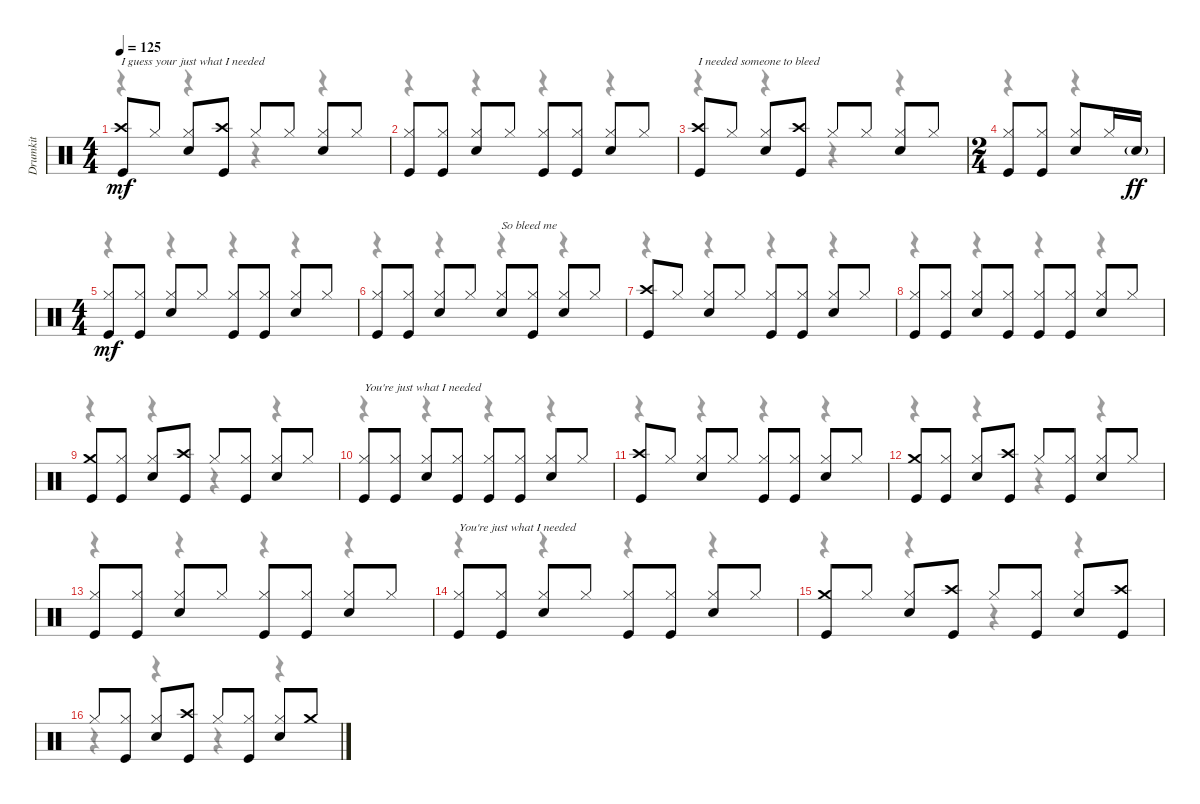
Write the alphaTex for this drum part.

\track ("Drumkit" "Drumkit") {instrument percussion}
\staff {score}
\articulation defaults
\voice
\ts (4 4)
\tempo 125
\clef neutral
\ks c
("Kick (hit)" "Crash high (hit)").8{txt "I guess your just what I needed" dy mf} "Hi-Hat (closed)".8 ("Hi-Hat (closed)" "Snare (hit) 2").8 ("Crash high (hit)" "Kick (hit)").8 "Hi-Hat (closed)".8 "Hi-Hat (closed)".8 ("Hi-Hat (closed)" "Snare (hit) 2").8 "Hi-Hat (closed)".8 |
("Hi-Hat (closed)" "Kick (hit)").8 ("Hi-Hat (closed)" "Kick (hit)").8 ("Hi-Hat (closed)" "Snare (hit) 2").8 "Hi-Hat (closed)".8 ("Hi-Hat (closed)" "Kick (hit)").8 ("Hi-Hat (closed)" "Kick (hit)").8 ("Hi-Hat (closed)" "Snare (hit) 2").8 "Hi-Hat (closed)".8 |
("Kick (hit)" "Crash high (hit)").8{txt "I needed someone to bleed"} "Hi-Hat (closed)".8 ("Hi-Hat (closed)" "Snare (hit) 2").8 ("Crash high (hit)" "Kick (hit)").8 "Hi-Hat (closed)".8 "Hi-Hat (closed)".8 ("Hi-Hat (closed)" "Snare (hit) 2").8 "Hi-Hat (closed)".8 |
\ts (2 4)
("Hi-Hat (closed)" "Kick (hit)").8 ("Hi-Hat (closed)" "Kick (hit)").8 ("Hi-Hat (closed)" "Snare (hit) 2").8 "Hi-Hat (closed)".16 "Snare (hit) 2"{g}.16{dy ff} |
\ts (4 4)
("Hi-Hat (closed)" "Kick (hit)").8{dy mf} ("Hi-Hat (closed)" "Kick (hit)").8 ("Hi-Hat (closed)" "Snare (hit) 2").8 "Hi-Hat (closed)".8 ("Hi-Hat (closed)" "Kick (hit)").8 ("Hi-Hat (closed)" "Kick (hit)").8 ("Hi-Hat (closed)" "Snare (hit) 2").8 "Hi-Hat (closed)".8 |
("Hi-Hat (closed)" "Kick (hit)").8 ("Hi-Hat (closed)" "Kick (hit)").8 ("Hi-Hat (closed)" "Snare (hit) 2").8 "Hi-Hat (closed)".8 ("Snare (hit) 2" "Hi-Hat (closed)").8{txt "So bleed me"} ("Kick (hit)" "Hi-Hat (closed)").8 ("Snare (hit) 2" "Hi-Hat (closed)").8 "Hi-Hat (closed)".8 |
("Kick (hit)" "Crash high (hit)").8 "Hi-Hat (closed)".8 ("Hi-Hat (closed)" "Snare (hit) 2").8 "Hi-Hat (closed)".8 ("Hi-Hat (closed)" "Kick (hit)").8 ("Hi-Hat (closed)" "Kick (hit)").8 ("Hi-Hat (closed)" "Snare (hit) 2").8 "Hi-Hat (closed)".8 |
("Hi-Hat (closed)" "Kick (hit)").8 ("Hi-Hat (closed)" "Kick (hit)").8 ("Hi-Hat (closed)" "Snare (hit) 2").8 ("Hi-Hat (closed)" "Kick (hit)").8 ("Hi-Hat (closed)" "Kick (hit)").8 ("Hi-Hat (closed)" "Kick (hit)").8 ("Hi-Hat (closed)" "Snare (hit) 2").8 "Hi-Hat (closed)".8 |
("Kick (hit)" "Crash medium (hit)").8 ("Hi-Hat (closed)" "Kick (hit)").8 ("Hi-Hat (closed)" "Snare (hit) 2").8 ("Kick (hit)" "Crash high (hit)").8 "Hi-Hat (closed)".8 ("Hi-Hat (closed)" "Kick (hit)").8 ("Hi-Hat (closed)" "Snare (hit) 2").8 "Hi-Hat (closed)".8 |
("Hi-Hat (closed)" "Kick (hit)").8{txt "You're just what I needed"} ("Hi-Hat (closed)" "Kick (hit)").8 ("Hi-Hat (closed)" "Snare (hit) 2").8 ("Hi-Hat (closed)" "Kick (hit)").8 ("Hi-Hat (closed)" "Kick (hit)").8 ("Hi-Hat (closed)" "Kick (hit)").8 ("Hi-Hat (closed)" "Snare (hit) 2").8 "Hi-Hat (closed)".8 |
("Kick (hit)" "Crash high (hit)").8 "Hi-Hat (closed)".8 ("Hi-Hat (closed)" "Snare (hit) 2").8 "Hi-Hat (closed)".8 ("Hi-Hat (closed)" "Kick (hit)").8 ("Hi-Hat (closed)" "Kick (hit)").8 ("Hi-Hat (closed)" "Snare (hit) 2").8 "Hi-Hat (closed)".8 |
("Kick (hit)" "Crash medium (hit)").8 ("Hi-Hat (closed)" "Kick (hit)").8 ("Hi-Hat (closed)" "Snare (hit) 2").8 ("Kick (hit)" "Crash high (hit)").8 "Hi-Hat (closed)".8 ("Hi-Hat (closed)" "Kick (hit)").8 ("Hi-Hat (closed)" "Snare (hit) 2").8 "Hi-Hat (closed)".8 |
("Hi-Hat (closed)" "Kick (hit)").8 ("Hi-Hat (closed)" "Kick (hit)").8 ("Hi-Hat (closed)" "Snare (hit) 2").8 "Hi-Hat (closed)".8 ("Hi-Hat (closed)" "Kick (hit)").8 ("Hi-Hat (closed)" "Kick (hit)").8 ("Hi-Hat (closed)" "Snare (hit) 2").8 "Hi-Hat (closed)".8 |
("Hi-Hat (closed)" "Kick (hit)").8{txt "You're just what I needed"} ("Hi-Hat (closed)" "Kick (hit)").8 ("Hi-Hat (closed)" "Snare (hit) 2").8 "Hi-Hat (closed)".8 ("Hi-Hat (closed)" "Kick (hit)").8 ("Hi-Hat (closed)" "Kick (hit)").8 ("Hi-Hat (closed)" "Snare (hit) 2").8 "Hi-Hat (closed)".8 |
("Kick (hit)" "Crash medium (hit)").8 "Hi-Hat (closed)".8 ("Hi-Hat (closed)" "Snare (hit) 2").8 ("Kick (hit)" "Crash high (hit)").8 "Hi-Hat (closed)".8 ("Hi-Hat (closed)" "Kick (hit)").8 ("Hi-Hat (closed)" "Snare (hit) 2").8 ("Crash high (hit)" "Kick (hit)").8 |
"Hi-Hat (closed)".8 ("Kick (hit)" "Hi-Hat (closed)").8 ("Hi-Hat (closed)" "Snare (hit) 2").8 ("Kick (hit)" "Crash high (hit)").8 "Hi-Hat (closed)".8 ("Hi-Hat (closed)" "Kick (hit)").8 ("Snare (hit) 2" "Hi-Hat (closed)").8 "Crash medium (hit)".8
\voice
\clef neutral
\ottava regular
\simile none
\ks c
r.4{dy f} r.4 r.4 r.4 |
r.4 r.4 r.4 r.4 |
r.4 r.4 r.4 r.4 |
r.4 r.4 |
r.4 r.4 r.4 r.4 |
r.4 r.4 r.4 r.4 |
r.4 r.4 r.4 r.4 |
r.4 r.4 r.4 r.4 |
r.4 r.4 r.4 r.4 |
r.4 r.4 r.4 r.4 |
r.4 r.4 r.4 r.4 |
r.4 r.4 r.4 r.4 |
r.4 r.4 r.4 r.4 |
r.4 r.4 r.4 r.4 |
r.4 r.4 r.4 r.4 |
r.4 r.4 r.4 r.4
